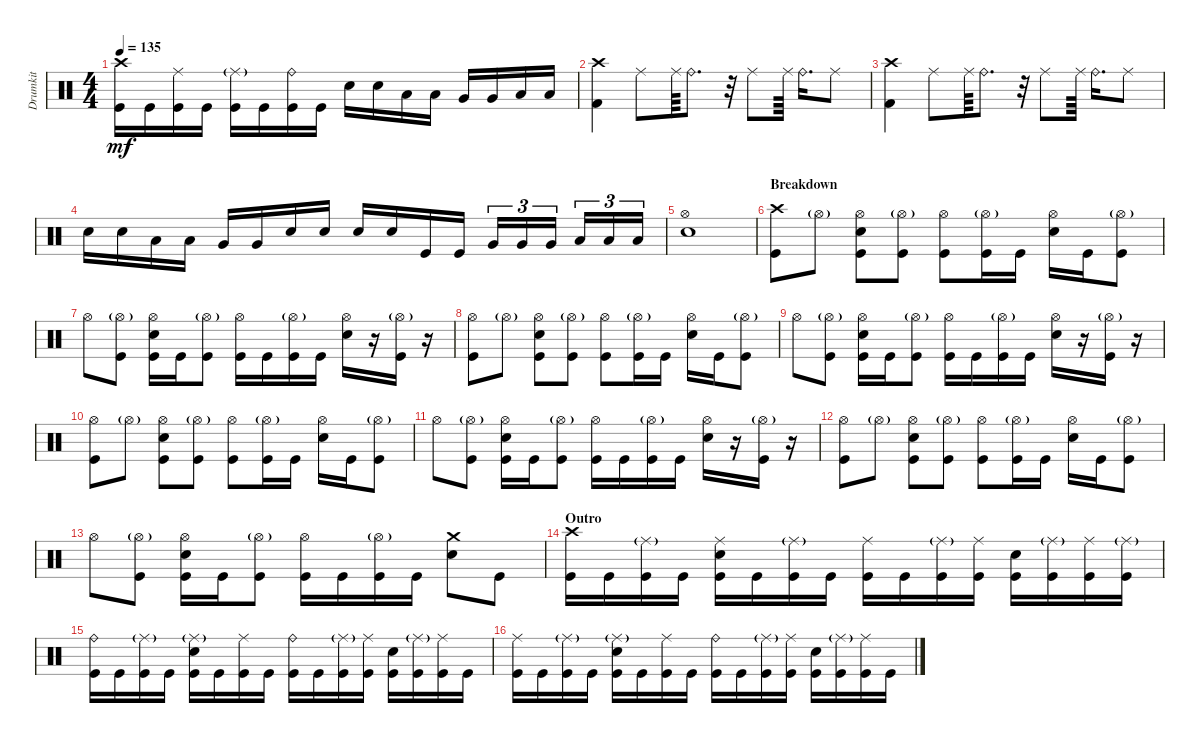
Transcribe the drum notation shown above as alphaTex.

\track ("Drumkit" "Drumkit") {instrument percussion}
\staff {score}
\articulation defaults
\ts (4 4)
\tempo 135
\clef neutral
\ks c
("Kick (hit)" "Crash high (hit)").16{dy mf} "Kick (hit)".16 ("Kick (hit)" "Ride (middle)").16 "Kick (hit)".16 ("Kick (hit)" "Ride (middle)"{g}).16 "Kick (hit)".16 ("Kick (hit)" "Ride (bell)").16 "Kick (hit)".16 "Snare (hit) 2".16 "Snare (hit) 2".16 "Low Tom (hit)".16 "Low Tom (hit)".16 "Very Low Tom (hit)".16 "Very Low Tom (hit)".16 "Low Floor Tom (hit)".16 "Low Floor Tom (hit)".16 |
("Kick (hit) 2" "Crash high (hit)").4 "Ride (middle)".8 "Ride (middle)".64 "Ride (bell)".8{d} r.32 "Ride (middle)".8 "Ride (middle)".64 "Ride (bell)".16{d} "Ride (middle)".8 |
("Kick (hit) 2" "Crash high (hit)").4 "Ride (middle)".8 "Ride (middle)".64 "Ride (bell)".8{d} r.32 "Ride (middle)".8 "Ride (middle)".64 "Ride (bell)".16{d} "Ride (middle)".8 |
"Snare (hit) 2".16 "Snare (hit) 2".16 "Low Tom (hit)".16 "Low Tom (hit)".16 "Very Low Tom (hit)".16 "Very Low Tom (hit)".16 "Snare (hit) 2".16 "Snare (hit) 2".16 "Snare (hit) 2".16 "Snare (hit) 2".16 "Kick (hit)".16 "Kick (hit)".16 "Very Low Tom (hit)".16{tu (3 2)} "Very Low Tom (hit)".16{tu (3 2)} "Very Low Tom (hit)".16{tu (3 2)} "Low Floor Tom (hit)".16{tu (3 2)} "Low Floor Tom (hit)".16{tu (3 2)} "Low Floor Tom (hit)".16{tu (3 2)} |
("Snare (hit) 2" "Hi-Hat (open)").1 |
\section ("" "Breakdown")
("Crash high (hit)" "Kick (hit)").8 "Hi-Hat (open)"{g}.8 ("Hi-Hat (open)" "Kick (hit)" "Snare (hit) 2").8 ("Hi-Hat (open)"{g} "Kick (hit)").8 ("Hi-Hat (open)" "Kick (hit)").8 ("Hi-Hat (open)"{g} "Kick (hit)").16 "Kick (hit)".16 ("Hi-Hat (open)" "Snare (hit) 2").16 "Kick (hit)".16 ("Hi-Hat (open)"{g} "Kick (hit)").8 |
"Hi-Hat (open)".8 ("Hi-Hat (open)"{g} "Kick (hit)").8 ("Hi-Hat (open)" "Kick (hit)" "Snare (hit) 2").16 "Kick (hit)".16 ("Hi-Hat (open)"{g} "Kick (hit)").8 ("Hi-Hat (open)" "Kick (hit)").16 "Kick (hit)".16 ("Hi-Hat (open)"{g} "Kick (hit)").16 "Kick (hit)".16 ("Hi-Hat (open)" "Snare (hit) 2").16 r.16 ("Hi-Hat (open)"{g} "Kick (hit)").16 r.16 |
("Kick (hit)" "Hi-Hat (open)").8 "Hi-Hat (open)"{g}.8 ("Hi-Hat (open)" "Kick (hit)" "Snare (hit) 2").8 ("Hi-Hat (open)"{g} "Kick (hit)").8 ("Hi-Hat (open)" "Kick (hit)").8 ("Hi-Hat (open)"{g} "Kick (hit)").16 "Kick (hit)".16 ("Hi-Hat (open)" "Snare (hit) 2").16 "Kick (hit)".16 ("Hi-Hat (open)"{g} "Kick (hit)").8 |
"Hi-Hat (open)".8 ("Hi-Hat (open)"{g} "Kick (hit)").8 ("Hi-Hat (open)" "Kick (hit)" "Snare (hit) 2").16 "Kick (hit)".16 ("Hi-Hat (open)"{g} "Kick (hit)").8 ("Hi-Hat (open)" "Kick (hit)").16 "Kick (hit)".16 ("Hi-Hat (open)"{g} "Kick (hit)").16 "Kick (hit)".16 ("Hi-Hat (open)" "Snare (hit) 2").16 r.16 ("Hi-Hat (open)"{g} "Kick (hit)").16 r.16 |
("Kick (hit)" "Hi-Hat (open)").8 "Hi-Hat (open)"{g}.8 ("Hi-Hat (open)" "Kick (hit)" "Snare (hit) 2").8 ("Hi-Hat (open)"{g} "Kick (hit)").8 ("Hi-Hat (open)" "Kick (hit)").8 ("Hi-Hat (open)"{g} "Kick (hit)").16 "Kick (hit)".16 ("Hi-Hat (open)" "Snare (hit) 2").16 "Kick (hit)".16 ("Hi-Hat (open)"{g} "Kick (hit)").8 |
"Hi-Hat (open)".8 ("Hi-Hat (open)"{g} "Kick (hit)").8 ("Hi-Hat (open)" "Kick (hit)" "Snare (hit) 2").16 "Kick (hit)".16 ("Hi-Hat (open)"{g} "Kick (hit)").8 ("Hi-Hat (open)" "Kick (hit)").16 "Kick (hit)".16 ("Hi-Hat (open)"{g} "Kick (hit)").16 "Kick (hit)".16 ("Hi-Hat (open)" "Snare (hit) 2").16 r.16 ("Hi-Hat (open)"{g} "Kick (hit)").16 r.16 |
("Kick (hit)" "Hi-Hat (open)").8 "Hi-Hat (open)"{g}.8 ("Hi-Hat (open)" "Kick (hit)" "Snare (hit) 2").8 ("Hi-Hat (open)"{g} "Kick (hit)").8 ("Hi-Hat (open)" "Kick (hit)").8 ("Hi-Hat (open)"{g} "Kick (hit)").16 "Kick (hit)".16 ("Hi-Hat (open)" "Snare (hit) 2").16 "Kick (hit)".16 ("Hi-Hat (open)"{g} "Kick (hit)").8 |
"Hi-Hat (open)".8 ("Hi-Hat (open)"{g} "Kick (hit)").8 ("Hi-Hat (open)" "Kick (hit)" "Snare (hit) 2").16 "Kick (hit)".16 ("Hi-Hat (open)"{g} "Kick (hit)").8 ("Hi-Hat (open)" "Kick (hit)").16 "Kick (hit)".16 ("Hi-Hat (open)"{g} "Kick (hit)").16 "Kick (hit)".16 ("Snare (hit) 2" "Crash medium (hit)").8 "Kick (hit)".8 |
\section ("" "Outro")
("Kick (hit)" "Crash high (hit)").16 "Kick (hit)".16 ("Kick (hit)" "Ride (middle)"{g}).16 "Kick (hit)".16 ("Kick (hit)" "Snare (hit) 2" "Ride (middle)").16 "Kick (hit)".16 ("Kick (hit)" "Ride (middle)"{g}).16 "Kick (hit)".16 ("Kick (hit)" "Ride (middle)").16 "Kick (hit)".16 ("Kick (hit)" "Ride (middle)"{g}).16 ("Kick (hit)" "Ride (middle)").16 ("Kick (hit)" "Snare (hit) 2").16 ("Kick (hit)" "Ride (middle)"{g}).16 ("Kick (hit)" "Ride (middle)").16 ("Kick (hit)" "Ride (middle)"{g}).16 |
("Kick (hit)" "Ride (bell)").16 "Kick (hit)".16 ("Kick (hit)" "Ride (middle)"{g}).16 "Kick (hit)".16 ("Kick (hit)" "Snare (hit) 2" "Ride (middle)"{g}).16 "Kick (hit)".16 ("Kick (hit)" "Ride (middle)").16 "Kick (hit)".16 ("Kick (hit)" "Ride (bell)").16 "Kick (hit)".16 ("Kick (hit)" "Ride (middle)"{g}).16 ("Kick (hit)" "Ride (middle)").16 ("Kick (hit)" "Snare (hit) 2").16 ("Kick (hit)" "Ride (middle)"{g}).16 ("Kick (hit)" "Ride (middle)").16 "Kick (hit)".16 |
("Kick (hit)" "Ride (middle)").16 "Kick (hit)".16 ("Kick (hit)" "Ride (middle)"{g}).16 "Kick (hit)".16 ("Kick (hit)" "Snare (hit) 2" "Ride (middle)"{g}).16 "Kick (hit)".16 ("Kick (hit)" "Ride (middle)").16 "Kick (hit)".16 ("Kick (hit)" "Ride (bell)").16 "Kick (hit)".16 ("Kick (hit)" "Ride (middle)"{g}).16 ("Kick (hit)" "Ride (middle)").16 ("Kick (hit)" "Snare (hit) 2").16 ("Kick (hit)" "Ride (middle)"{g}).16 ("Kick (hit)" "Ride (middle)").16 "Kick (hit)".16
